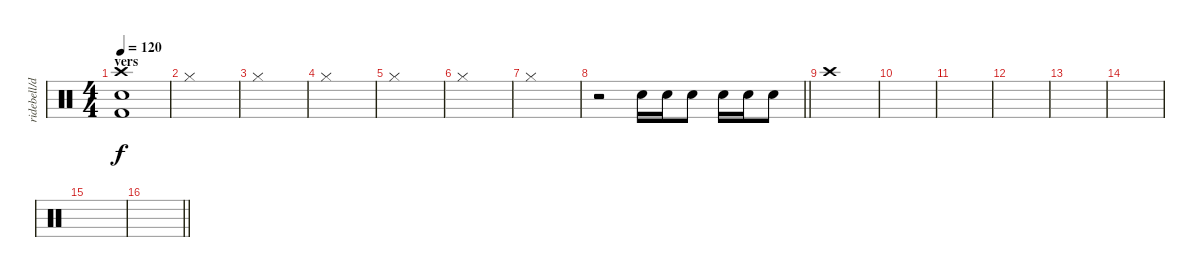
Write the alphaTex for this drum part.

\track ("ridebell/drum" "ridebell/d") {instrument percussion}
\staff {score}
\articulation defaults
\ts (4 4)
\section ("" "vers")
\tempo 120
\clef neutral
\ks c
("Snare (hit) 2" "Kick (hit) 2" "Crash high (hit)").1{dy f} |
"Hi-Hat (closed)".1 |
"Hi-Hat (closed)".1 |
"Hi-Hat (closed)".1 |
"Hi-Hat (closed)".1 |
"Hi-Hat (closed)".1 |
"Hi-Hat (closed)".1 |
\barLineRight lightlight
r.2 "Snare (hit) 2".16 "Snare (hit) 2".16 "Snare (hit) 2".8 "Snare (hit) 2".16 "Snare (hit) 2".16 "Snare (hit) 2".8 |
"Crash high (hit)".1 |
|
|
|
|
|
|
\barLineRight lightlight
